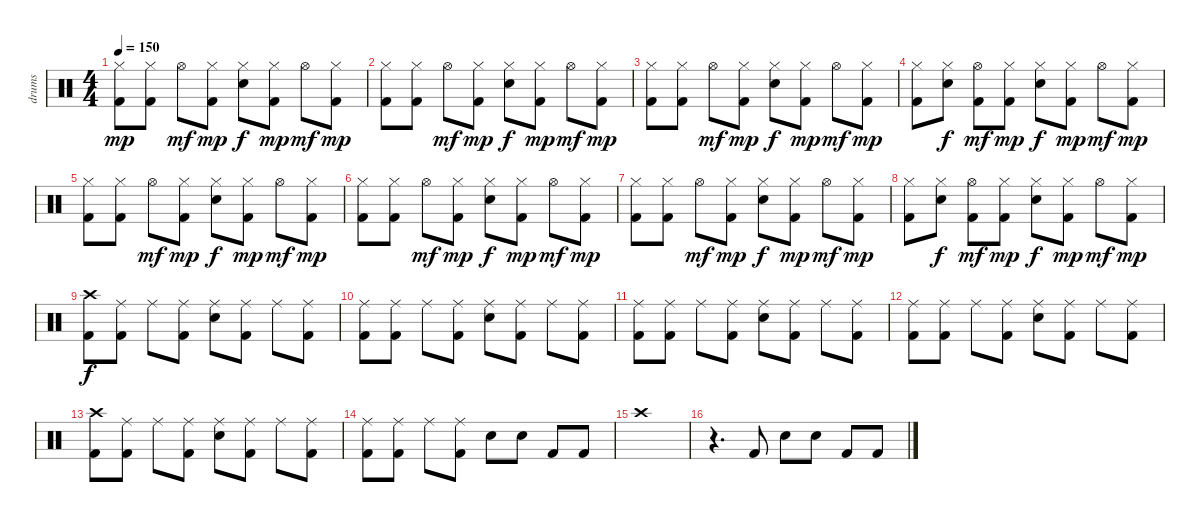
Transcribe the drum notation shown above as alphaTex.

\track ("drums" "drums") {instrument percussion}
\staff {score}
\articulation defaults
\ts (4 4)
\tempo 150
\clef neutral
\ks c
("Hi-Hat (closed)" "Kick (hit) 2").8{dy mp} ("Hi-Hat (closed)" "Kick (hit) 2").8 "Hi-Hat (open)".8{dy mf} ("Hi-Hat (closed)" "Kick (hit) 2").8{dy mp} ("Hi-Hat (closed)" "Electric Snare (hit)").8{dy f} ("Hi-Hat (closed)" "Kick (hit) 2").8{dy mp} "Hi-Hat (open)".8{dy mf} ("Hi-Hat (closed)" "Kick (hit) 2").8{dy mp} |
("Hi-Hat (closed)" "Kick (hit) 2").8 ("Hi-Hat (closed)" "Kick (hit) 2").8 "Hi-Hat (open)".8{dy mf} ("Hi-Hat (closed)" "Kick (hit) 2").8{dy mp} ("Hi-Hat (closed)" "Electric Snare (hit)").8{dy f} ("Hi-Hat (closed)" "Kick (hit) 2").8{dy mp} "Hi-Hat (open)".8{dy mf} ("Hi-Hat (closed)" "Kick (hit) 2").8{dy mp} |
("Hi-Hat (closed)" "Kick (hit) 2").8 ("Hi-Hat (closed)" "Kick (hit) 2").8 "Hi-Hat (open)".8{dy mf} ("Hi-Hat (closed)" "Kick (hit) 2").8{dy mp} ("Hi-Hat (closed)" "Electric Snare (hit)").8{dy f} ("Hi-Hat (closed)" "Kick (hit) 2").8{dy mp} "Hi-Hat (open)".8{dy mf} ("Hi-Hat (closed)" "Kick (hit) 2").8{dy mp} |
("Hi-Hat (closed)" "Kick (hit) 2").8 ("Hi-Hat (closed)" "Electric Snare (hit)").8{dy f} ("Hi-Hat (open)" "Kick (hit) 2").8{dy mf} ("Hi-Hat (closed)" "Kick (hit) 2").8{dy mp} ("Hi-Hat (closed)" "Electric Snare (hit)").8{dy f} ("Hi-Hat (closed)" "Kick (hit) 2").8{dy mp} "Hi-Hat (open)".8{dy mf} ("Hi-Hat (closed)" "Kick (hit) 2").8{dy mp} |
("Hi-Hat (closed)" "Kick (hit) 2").8 ("Hi-Hat (closed)" "Kick (hit) 2").8 "Hi-Hat (open)".8{dy mf} ("Hi-Hat (closed)" "Kick (hit) 2").8{dy mp} ("Hi-Hat (closed)" "Electric Snare (hit)").8{dy f} ("Hi-Hat (closed)" "Kick (hit) 2").8{dy mp} "Hi-Hat (open)".8{dy mf} ("Hi-Hat (closed)" "Kick (hit) 2").8{dy mp} |
("Hi-Hat (closed)" "Kick (hit) 2").8 ("Hi-Hat (closed)" "Kick (hit) 2").8 "Hi-Hat (open)".8{dy mf} ("Hi-Hat (closed)" "Kick (hit) 2").8{dy mp} ("Hi-Hat (closed)" "Electric Snare (hit)").8{dy f} ("Hi-Hat (closed)" "Kick (hit) 2").8{dy mp} "Hi-Hat (open)".8{dy mf} ("Hi-Hat (closed)" "Kick (hit) 2").8{dy mp} |
("Hi-Hat (closed)" "Kick (hit) 2").8 ("Hi-Hat (closed)" "Kick (hit) 2").8 "Hi-Hat (open)".8{dy mf} ("Hi-Hat (closed)" "Kick (hit) 2").8{dy mp} ("Hi-Hat (closed)" "Electric Snare (hit)").8{dy f} ("Hi-Hat (closed)" "Kick (hit) 2").8{dy mp} "Hi-Hat (open)".8{dy mf} ("Hi-Hat (closed)" "Kick (hit) 2").8{dy mp} |
("Hi-Hat (closed)" "Kick (hit) 2").8 ("Hi-Hat (closed)" "Electric Snare (hit)").8{dy f} ("Hi-Hat (open)" "Kick (hit) 2").8{dy mf} ("Hi-Hat (closed)" "Kick (hit) 2").8{dy mp} ("Hi-Hat (closed)" "Electric Snare (hit)").8{dy f} ("Hi-Hat (closed)" "Kick (hit) 2").8{dy mp} "Hi-Hat (open)".8{dy mf} ("Hi-Hat (closed)" "Kick (hit) 2").8{dy mp} |
("Crash high (hit)" "Kick (hit) 2").8{dy f} ("Ride (middle)" "Kick (hit) 2").8 "Ride (middle)".8 ("Ride (middle)" "Kick (hit) 2").8 ("Ride (middle)" "Electric Snare (hit)").8 ("Ride (middle)" "Kick (hit) 2").8 "Ride (middle)".8 ("Ride (middle)" "Kick (hit) 2").8 |
("Ride (middle)" "Kick (hit) 2").8 ("Ride (middle)" "Kick (hit) 2").8 "Ride (middle)".8 ("Ride (middle)" "Kick (hit) 2").8 ("Ride (middle)" "Electric Snare (hit)").8 ("Ride (middle)" "Kick (hit) 2").8 "Ride (middle)".8 ("Ride (middle)" "Kick (hit) 2").8 |
("Ride (middle)" "Kick (hit) 2").8 ("Ride (middle)" "Kick (hit) 2").8 "Ride (middle)".8 ("Ride (middle)" "Kick (hit) 2").8 ("Ride (middle)" "Electric Snare (hit)").8 ("Ride (middle)" "Kick (hit) 2").8 "Ride (middle)".8 ("Ride (middle)" "Kick (hit) 2").8 |
("Ride (middle)" "Kick (hit) 2").8 ("Ride (middle)" "Kick (hit) 2").8 "Ride (middle)".8 ("Ride (middle)" "Kick (hit) 2").8 ("Ride (middle)" "Electric Snare (hit)").8 ("Ride (middle)" "Kick (hit) 2").8 "Ride (middle)".8 ("Ride (middle)" "Kick (hit) 2").8 |
("Crash high (hit)" "Kick (hit) 2").8 ("Ride (middle)" "Kick (hit) 2").8 "Ride (middle)".8 ("Ride (middle)" "Kick (hit) 2").8 ("Ride (middle)" "Electric Snare (hit)").8 ("Ride (middle)" "Kick (hit) 2").8 "Ride (middle)".8 ("Ride (middle)" "Kick (hit) 2").8 |
("Ride (middle)" "Kick (hit) 2").8 ("Ride (middle)" "Kick (hit) 2").8 "Ride (middle)".8 ("Ride (middle)" "Kick (hit) 2").8 "Electric Snare (hit)".8 "Electric Snare (hit)".8 "Kick (hit) 2".8 "Kick (hit) 2".8 |
"Crash high (hit)".1 |
r.4{d} "Kick (hit) 2".8 "Electric Snare (hit)".8 "Electric Snare (hit)".8 "Kick (hit) 2".8 "Kick (hit) 2".8
